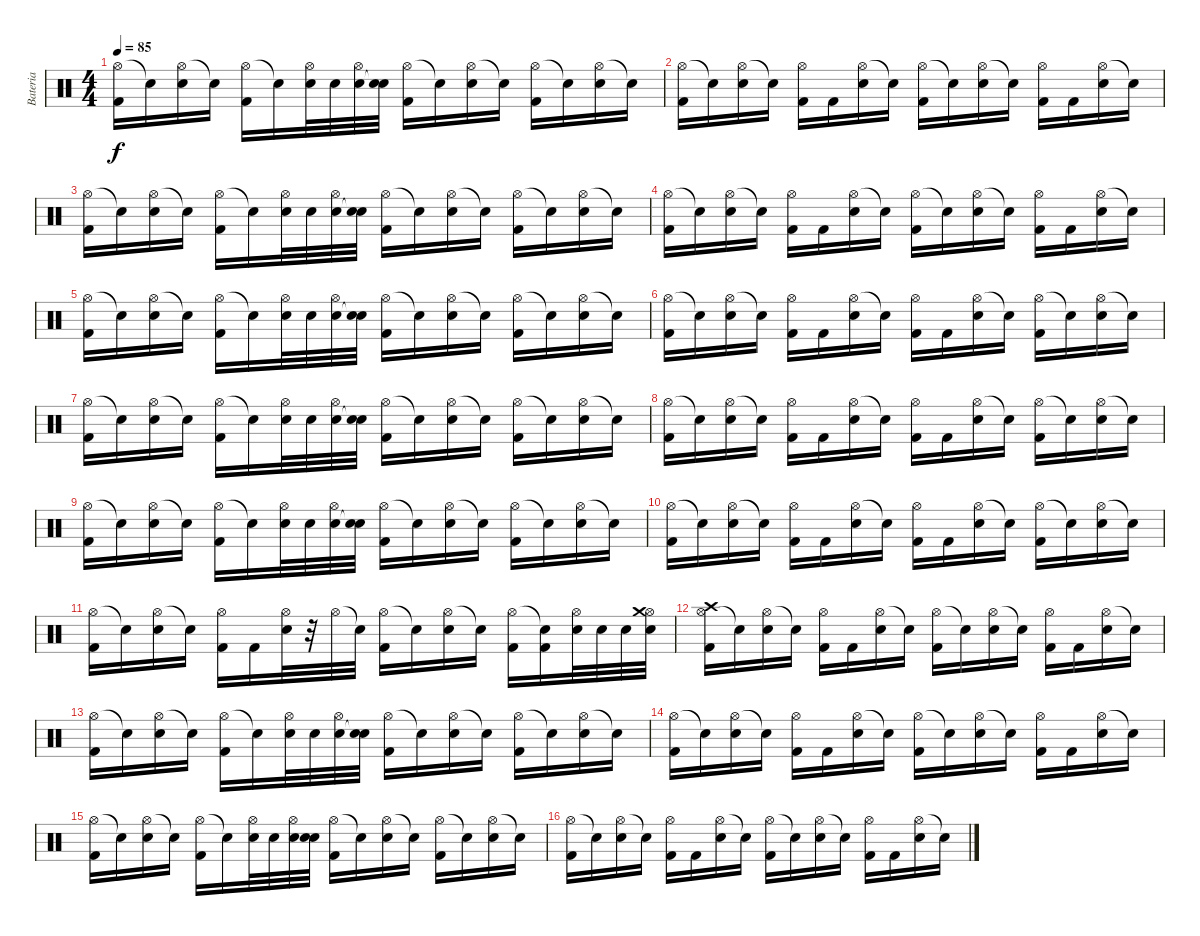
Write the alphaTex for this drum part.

\track ("Bateria" "Bateria") {instrument percussion}
\staff {score}
\articulation defaults
\ts (4 4)
\tempo 85
\clef neutral
\ks c
("Hi-Hat (open)" "Kick (hit) 2").16{dy f} "Snare (hit)"{t}.16 ("Hi-Hat (open)" "Electric Snare (hit)").16 "Snare (hit)"{t}.16 ("Hi-Hat (open)" "Kick (hit) 2").16 "Snare (hit)"{t}.16 ("Hi-Hat (open)" "Electric Snare (hit)").32 "Electric Snare (hit)".32 ("Hi-Hat (open)" "Electric Snare (hit)").32 ("Electric Snare (hit)" "Snare (hit)"{t}).32 ("Hi-Hat (open)" "Kick (hit) 2").16 "Snare (hit)"{t}.16 ("Hi-Hat (open)" "Electric Snare (hit)").16 "Snare (hit)"{t}.16 ("Hi-Hat (open)" "Kick (hit) 2").16 "Snare (hit)"{t}.16 ("Hi-Hat (open)" "Electric Snare (hit)").16 "Snare (hit)"{t}.16 |
("Hi-Hat (open)" "Kick (hit) 2").16 "Snare (hit)"{t}.16 ("Hi-Hat (open)" "Electric Snare (hit)").16 "Snare (hit)"{t}.16 ("Hi-Hat (open)" "Kick (hit) 2").16 "Kick (hit) 2".16 ("Hi-Hat (open)" "Electric Snare (hit)").16 "Snare (hit)"{t}.16 ("Hi-Hat (open)" "Kick (hit) 2").16 "Snare (hit)"{t}.16 ("Hi-Hat (open)" "Electric Snare (hit)").16 "Snare (hit)"{t}.16 ("Hi-Hat (open)" "Kick (hit) 2").16 "Kick (hit) 2".16 ("Hi-Hat (open)" "Electric Snare (hit)").16 "Snare (hit)"{t}.16 |
("Hi-Hat (open)" "Kick (hit) 2").16 "Snare (hit)"{t}.16 ("Hi-Hat (open)" "Electric Snare (hit)").16 "Snare (hit)"{t}.16 ("Hi-Hat (open)" "Kick (hit) 2").16 "Snare (hit)"{t}.16 ("Hi-Hat (open)" "Electric Snare (hit)").32 "Electric Snare (hit)".32 ("Hi-Hat (open)" "Electric Snare (hit)").32 ("Electric Snare (hit)" "Snare (hit)"{t}).32 ("Hi-Hat (open)" "Kick (hit) 2").16 "Snare (hit)"{t}.16 ("Hi-Hat (open)" "Electric Snare (hit)").16 "Snare (hit)"{t}.16 ("Hi-Hat (open)" "Kick (hit) 2").16 "Snare (hit)"{t}.16 ("Hi-Hat (open)" "Electric Snare (hit)").16 "Snare (hit)"{t}.16 |
("Hi-Hat (open)" "Kick (hit) 2").16 "Snare (hit)"{t}.16 ("Hi-Hat (open)" "Electric Snare (hit)").16 "Snare (hit)"{t}.16 ("Hi-Hat (open)" "Kick (hit) 2").16 "Kick (hit) 2".16 ("Hi-Hat (open)" "Electric Snare (hit)").16 "Snare (hit)"{t}.16 ("Hi-Hat (open)" "Kick (hit) 2").16 "Snare (hit)"{t}.16 ("Hi-Hat (open)" "Electric Snare (hit)").16 "Snare (hit)"{t}.16 ("Hi-Hat (open)" "Kick (hit) 2").16 "Kick (hit) 2".16 ("Hi-Hat (open)" "Electric Snare (hit)").16 "Snare (hit)"{t}.16 |
("Hi-Hat (open)" "Kick (hit) 2").16 "Snare (hit)"{t}.16 ("Hi-Hat (open)" "Electric Snare (hit)").16 "Snare (hit)"{t}.16 ("Hi-Hat (open)" "Kick (hit) 2").16 "Snare (hit)"{t}.16 ("Hi-Hat (open)" "Electric Snare (hit)").32 "Electric Snare (hit)".32 ("Hi-Hat (open)" "Electric Snare (hit)").32 ("Electric Snare (hit)" "Snare (hit)"{t}).32 ("Hi-Hat (open)" "Kick (hit) 2").16 "Snare (hit)"{t}.16 ("Hi-Hat (open)" "Electric Snare (hit)").16 "Snare (hit)"{t}.16 ("Hi-Hat (open)" "Kick (hit) 2").16 "Snare (hit)"{t}.16 ("Hi-Hat (open)" "Electric Snare (hit)").16 "Snare (hit)"{t}.16 |
("Hi-Hat (open)" "Kick (hit) 2").16 "Snare (hit)"{t}.16 ("Hi-Hat (open)" "Electric Snare (hit)").16 "Snare (hit)"{t}.16 ("Hi-Hat (open)" "Kick (hit) 2").16 "Kick (hit) 2".16 ("Hi-Hat (open)" "Electric Snare (hit)").16 "Snare (hit)"{t}.16 ("Hi-Hat (open)" "Kick (hit) 2").16 "Kick (hit) 2".16 ("Hi-Hat (open)" "Electric Snare (hit)").16 "Snare (hit)"{t}.16 ("Hi-Hat (open)" "Kick (hit) 2").16 "Snare (hit)"{t}.16 ("Hi-Hat (open)" "Electric Snare (hit)").16 "Snare (hit)"{t}.16 |
("Hi-Hat (open)" "Kick (hit) 2").16 "Snare (hit)"{t}.16 ("Hi-Hat (open)" "Electric Snare (hit)").16 "Snare (hit)"{t}.16 ("Hi-Hat (open)" "Kick (hit) 2").16 "Snare (hit)"{t}.16 ("Hi-Hat (open)" "Electric Snare (hit)").32 "Electric Snare (hit)".32 ("Hi-Hat (open)" "Electric Snare (hit)").32 ("Electric Snare (hit)" "Snare (hit)"{t}).32 ("Hi-Hat (open)" "Kick (hit) 2").16 "Snare (hit)"{t}.16 ("Hi-Hat (open)" "Electric Snare (hit)").16 "Snare (hit)"{t}.16 ("Hi-Hat (open)" "Kick (hit) 2").16 "Snare (hit)"{t}.16 ("Hi-Hat (open)" "Electric Snare (hit)").16 "Snare (hit)"{t}.16 |
("Hi-Hat (open)" "Kick (hit) 2").16 "Snare (hit)"{t}.16 ("Hi-Hat (open)" "Electric Snare (hit)").16 "Snare (hit)"{t}.16 ("Hi-Hat (open)" "Kick (hit) 2").16 "Kick (hit) 2".16 ("Hi-Hat (open)" "Electric Snare (hit)").16 "Snare (hit)"{t}.16 ("Hi-Hat (open)" "Kick (hit) 2").16 "Kick (hit) 2".16 ("Hi-Hat (open)" "Electric Snare (hit)").16 "Snare (hit)"{t}.16 ("Hi-Hat (open)" "Kick (hit) 2").16 "Snare (hit)"{t}.16 ("Hi-Hat (open)" "Electric Snare (hit)").16 "Snare (hit)"{t}.16 |
("Hi-Hat (open)" "Kick (hit) 2").16 "Snare (hit)"{t}.16 ("Hi-Hat (open)" "Electric Snare (hit)").16 "Snare (hit)"{t}.16 ("Hi-Hat (open)" "Kick (hit) 2").16 "Snare (hit)"{t}.16 ("Hi-Hat (open)" "Electric Snare (hit)").32 "Electric Snare (hit)".32 ("Hi-Hat (open)" "Electric Snare (hit)").32 ("Electric Snare (hit)" "Snare (hit)"{t}).32 ("Hi-Hat (open)" "Kick (hit) 2").16 "Snare (hit)"{t}.16 ("Hi-Hat (open)" "Electric Snare (hit)").16 "Snare (hit)"{t}.16 ("Hi-Hat (open)" "Kick (hit) 2").16 "Snare (hit)"{t}.16 ("Hi-Hat (open)" "Electric Snare (hit)").16 "Snare (hit)"{t}.16 |
("Hi-Hat (open)" "Kick (hit) 2").16 "Snare (hit)"{t}.16 ("Hi-Hat (open)" "Electric Snare (hit)").16 "Snare (hit)"{t}.16 ("Hi-Hat (open)" "Kick (hit) 2").16 "Kick (hit) 2".16 ("Hi-Hat (open)" "Electric Snare (hit)").16 "Snare (hit)"{t}.16 ("Hi-Hat (open)" "Kick (hit) 2").16 "Kick (hit) 2".16 ("Hi-Hat (open)" "Electric Snare (hit)").16 "Snare (hit)"{t}.16 ("Hi-Hat (open)" "Kick (hit) 2").16 "Snare (hit)"{t}.16 ("Hi-Hat (open)" "Electric Snare (hit)").16 "Snare (hit)"{t}.16 |
("Hi-Hat (open)" "Kick (hit) 2").16 "Snare (hit)"{t}.16 ("Hi-Hat (open)" "Electric Snare (hit)").16 "Snare (hit)"{t}.16 ("Hi-Hat (open)" "Kick (hit) 2").16 "Kick (hit) 2".16 ("Hi-Hat (open)" "Electric Snare (hit)").32 r.32 "Hi-Hat (open)".32 "Snare (hit)"{t}.32 ("Hi-Hat (open)" "Kick (hit) 2").16 "Snare (hit)"{t}.16 ("Hi-Hat (open)" "Electric Snare (hit)").16 "Snare (hit)"{t}.16 ("Hi-Hat (open)" "Kick (hit) 2").16 ("Snare (hit)"{t} "Kick (hit) 2").16 ("Hi-Hat (open)" "Electric Snare (hit)").32 "Electric Snare (hit)".32 "Electric Snare (hit)".32 ("Hi-Hat (open)" "Crash medium (hit)" "Electric Snare (hit)").32 |
("Hi-Hat (open)" "Crash high (hit)" "Kick (hit) 2").16 "Snare (hit)"{t}.16 ("Hi-Hat (open)" "Electric Snare (hit)").16 "Snare (hit)"{t}.16 ("Hi-Hat (open)" "Kick (hit) 2").16 "Kick (hit) 2".16 ("Hi-Hat (open)" "Electric Snare (hit)").16 "Snare (hit)"{t}.16 ("Hi-Hat (open)" "Kick (hit) 2").16 "Snare (hit)"{t}.16 ("Hi-Hat (open)" "Electric Snare (hit)").16 "Snare (hit)"{t}.16 ("Hi-Hat (open)" "Kick (hit) 2").16 "Kick (hit) 2".16 ("Hi-Hat (open)" "Electric Snare (hit)").16 "Snare (hit)"{t}.16 |
("Hi-Hat (open)" "Kick (hit) 2").16 "Snare (hit)"{t}.16 ("Hi-Hat (open)" "Electric Snare (hit)").16 "Snare (hit)"{t}.16 ("Hi-Hat (open)" "Kick (hit) 2").16 "Snare (hit)"{t}.16 ("Hi-Hat (open)" "Electric Snare (hit)").32 "Electric Snare (hit)".32 ("Hi-Hat (open)" "Electric Snare (hit)").32 ("Electric Snare (hit)" "Snare (hit)"{t}).32 ("Hi-Hat (open)" "Kick (hit) 2").16 "Snare (hit)"{t}.16 ("Hi-Hat (open)" "Electric Snare (hit)").16 "Snare (hit)"{t}.16 ("Hi-Hat (open)" "Kick (hit) 2").16 "Snare (hit)"{t}.16 ("Hi-Hat (open)" "Electric Snare (hit)").16 "Snare (hit)"{t}.16 |
("Hi-Hat (open)" "Kick (hit) 2").16 "Snare (hit)"{t}.16 ("Hi-Hat (open)" "Electric Snare (hit)").16 "Snare (hit)"{t}.16 ("Hi-Hat (open)" "Kick (hit) 2").16 "Kick (hit) 2".16 ("Hi-Hat (open)" "Electric Snare (hit)").16 "Snare (hit)"{t}.16 ("Hi-Hat (open)" "Kick (hit) 2").16 "Snare (hit)"{t}.16 ("Hi-Hat (open)" "Electric Snare (hit)").16 "Snare (hit)"{t}.16 ("Hi-Hat (open)" "Kick (hit) 2").16 "Kick (hit) 2".16 ("Hi-Hat (open)" "Electric Snare (hit)").16 "Snare (hit)"{t}.16 |
("Hi-Hat (open)" "Kick (hit) 2").16 "Snare (hit)"{t}.16 ("Hi-Hat (open)" "Electric Snare (hit)").16 "Snare (hit)"{t}.16 ("Hi-Hat (open)" "Kick (hit) 2").16 "Snare (hit)"{t}.16 ("Hi-Hat (open)" "Electric Snare (hit)").32 "Electric Snare (hit)".32 ("Hi-Hat (open)" "Electric Snare (hit)").32 ("Electric Snare (hit)" "Snare (hit)"{t}).32 ("Hi-Hat (open)" "Kick (hit) 2").16 "Snare (hit)"{t}.16 ("Hi-Hat (open)" "Electric Snare (hit)").16 "Snare (hit)"{t}.16 ("Hi-Hat (open)" "Kick (hit) 2").16 "Snare (hit)"{t}.16 ("Hi-Hat (open)" "Electric Snare (hit)").16 "Snare (hit)"{t}.16 |
("Hi-Hat (open)" "Kick (hit) 2").16 "Snare (hit)"{t}.16 ("Hi-Hat (open)" "Electric Snare (hit)").16 "Snare (hit)"{t}.16 ("Hi-Hat (open)" "Kick (hit) 2").16 "Kick (hit) 2".16 ("Hi-Hat (open)" "Electric Snare (hit)").16 "Snare (hit)"{t}.16 ("Hi-Hat (open)" "Kick (hit) 2").16 "Snare (hit)"{t}.16 ("Hi-Hat (open)" "Electric Snare (hit)").16 "Snare (hit)"{t}.16 ("Hi-Hat (open)" "Kick (hit) 2").16 "Kick (hit) 2".16 ("Hi-Hat (open)" "Electric Snare (hit)").16 "Snare (hit)"{t}.16
